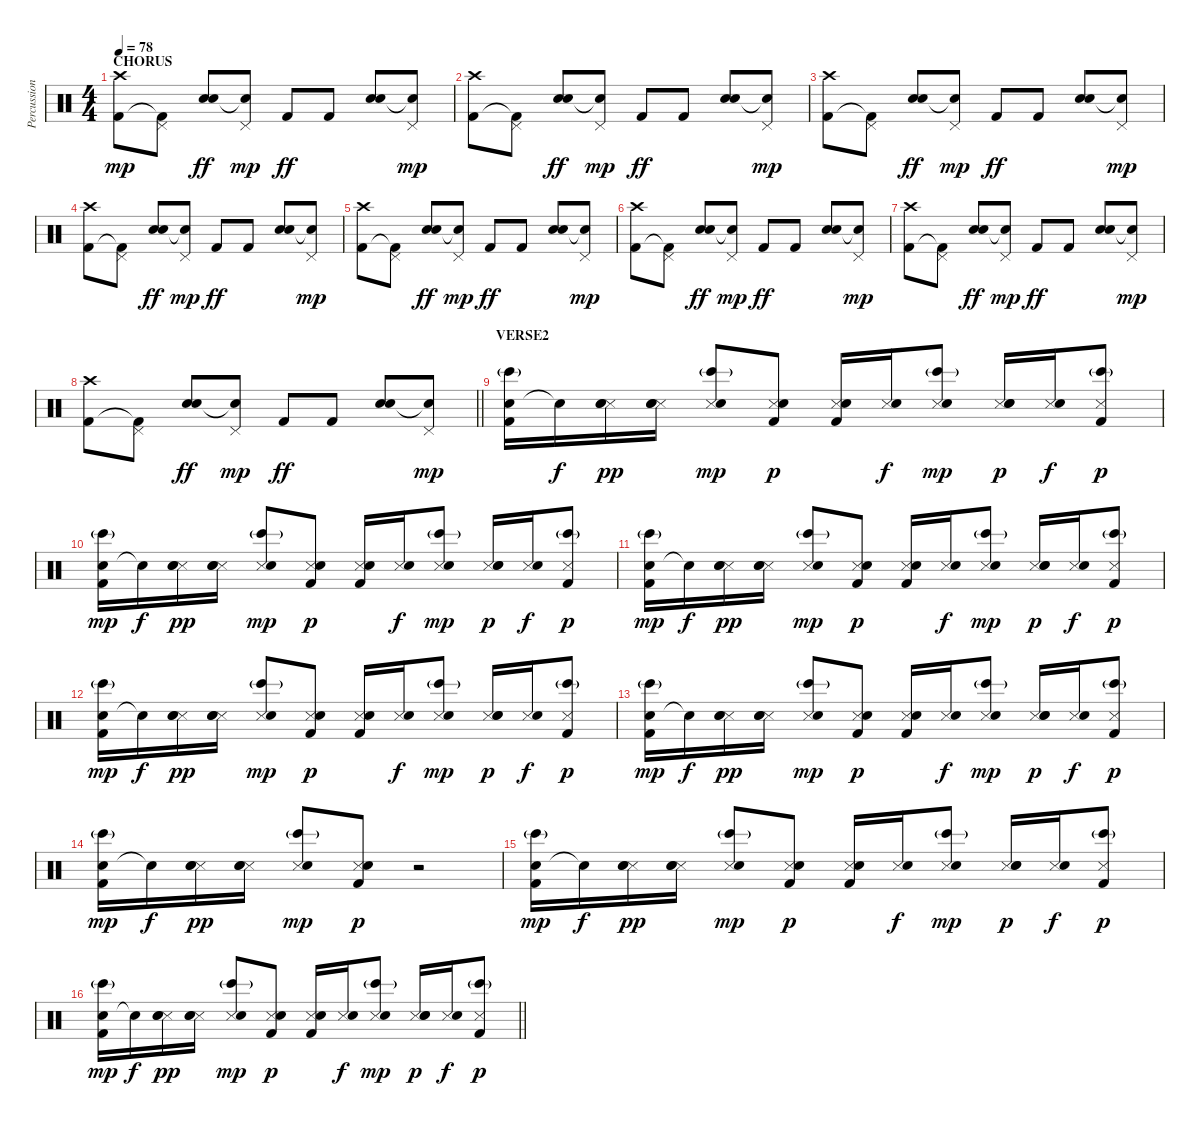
\track ("Percussion" "Percussion") {instrument percussion}
\staff {score}
\articulation defaults
\ts (4 4)
\section ("" "CHORUS")
\tempo 78
\clef neutral
\ks c
("Kick (hit) 2" "Crash high (hit)").8{dy mp} ("Kick (hit) 2"{t} "Pedal Hi-Hat (hit)").8 ("Snare (hit) 2" "Electric Snare (hit)").8{dy ff} ("Snare (hit)"{t} "Pedal Hi-Hat (hit)").8{dy mp} "Kick (hit) 2".8{dy ff} "Kick (hit) 2".8 ("Snare (hit) 2" "Electric Snare (hit)").8 ("Snare (hit)"{t} "Pedal Hi-Hat (hit)").8{dy mp} |
("Kick (hit) 2" "Crash high (hit)").8 ("Kick (hit) 2"{t} "Pedal Hi-Hat (hit)").8 ("Snare (hit) 2" "Electric Snare (hit)").8{dy ff} ("Snare (hit)"{t} "Pedal Hi-Hat (hit)").8{dy mp} "Kick (hit) 2".8{dy ff} "Kick (hit) 2".8 ("Snare (hit) 2" "Electric Snare (hit)").8 ("Snare (hit)"{t} "Pedal Hi-Hat (hit)").8{dy mp} |
("Kick (hit) 2" "Crash high (hit)").8 ("Kick (hit) 2"{t} "Pedal Hi-Hat (hit)").8 ("Snare (hit) 2" "Electric Snare (hit)").8{dy ff} ("Snare (hit)"{t} "Pedal Hi-Hat (hit)").8{dy mp} "Kick (hit) 2".8{dy ff} "Kick (hit) 2".8 ("Snare (hit) 2" "Electric Snare (hit)").8 ("Snare (hit)"{t} "Pedal Hi-Hat (hit)").8{dy mp} |
("Kick (hit) 2" "Crash high (hit)").8 ("Kick (hit) 2"{t} "Pedal Hi-Hat (hit)").8 ("Snare (hit) 2" "Electric Snare (hit)").8{dy ff} ("Snare (hit)"{t} "Pedal Hi-Hat (hit)").8{dy mp} "Kick (hit) 2".8{dy ff} "Kick (hit) 2".8 ("Snare (hit) 2" "Electric Snare (hit)").8 ("Snare (hit)"{t} "Pedal Hi-Hat (hit)").8{dy mp} |
("Kick (hit) 2" "Crash high (hit)").8 ("Kick (hit) 2"{t} "Pedal Hi-Hat (hit)").8 ("Snare (hit) 2" "Electric Snare (hit)").8{dy ff} ("Snare (hit)"{t} "Pedal Hi-Hat (hit)").8{dy mp} "Kick (hit) 2".8{dy ff} "Kick (hit) 2".8 ("Snare (hit) 2" "Electric Snare (hit)").8 ("Snare (hit)"{t} "Pedal Hi-Hat (hit)").8{dy mp} |
("Kick (hit) 2" "Crash high (hit)").8 ("Kick (hit) 2"{t} "Pedal Hi-Hat (hit)").8 ("Snare (hit) 2" "Electric Snare (hit)").8{dy ff} ("Snare (hit)"{t} "Pedal Hi-Hat (hit)").8{dy mp} "Kick (hit) 2".8{dy ff} "Kick (hit) 2".8 ("Snare (hit) 2" "Electric Snare (hit)").8 ("Snare (hit)"{t} "Pedal Hi-Hat (hit)").8{dy mp} |
("Kick (hit) 2" "Crash high (hit)").8 ("Kick (hit) 2"{t} "Pedal Hi-Hat (hit)").8 ("Snare (hit) 2" "Electric Snare (hit)").8{dy ff} ("Snare (hit)"{t} "Pedal Hi-Hat (hit)").8{dy mp} "Kick (hit) 2".8{dy ff} "Kick (hit) 2".8 ("Snare (hit) 2" "Electric Snare (hit)").8 ("Snare (hit)"{t} "Pedal Hi-Hat (hit)").8{dy mp} |
\barLineRight lightlight
("Kick (hit) 2" "Crash high (hit)").8 ("Kick (hit) 2"{t} "Pedal Hi-Hat (hit)").8 ("Snare (hit) 2" "Electric Snare (hit)").8{dy ff} ("Snare (hit)"{t} "Pedal Hi-Hat (hit)").8{dy mp} "Kick (hit) 2".8{dy ff} "Kick (hit) 2".8 ("Snare (hit) 2" "Electric Snare (hit)").8 ("Snare (hit)"{t} "Pedal Hi-Hat (hit)").8{dy mp} |
\section ("" "VERSE2")
("Hand Clap (hit)" "Bongo High (hit)"{g} "Kick (hit) 2").16 "Snare (hit)"{t}.16{dy f} ("Snare (side stick) 3" "Hand Clap (hit)" "Snare (hit) 2").16{dy pp} ("Snare (side stick) 3" "Hand Clap (hit)" "Snare (hit) 2").16 ("Snare (side stick) 3" "Snare (hit) 2" "Bongo High (hit)"{g}).8{dy mp} ("Snare (side stick) 3" "Hand Clap (hit)" "Kick (hit) 2").8{dy p} ("Snare (side stick) 3" "Hand Clap (hit)" "Kick (hit) 2").16 ("Snare (side stick) 3" "Hand Clap (hit)").16{dy f} ("Snare (side stick) 3" "Snare (hit) 2" "Bongo High (hit)"{g}).8{dy mp} ("Snare (side stick) 3" "Hand Clap (hit)" "Snare (hit) 2").16{dy p} ("Snare (side stick) 3" "Hand Clap (hit)").16{dy f} ("Snare (side stick) 3" "Bongo High (hit)"{g} "Kick (hit) 2").8{dy p} |
("Hand Clap (hit)" "Bongo High (hit)"{g} "Kick (hit) 2").16{dy mp} "Snare (hit)"{t}.16{dy f} ("Snare (side stick) 3" "Hand Clap (hit)" "Snare (hit) 2").16{dy pp} ("Snare (side stick) 3" "Hand Clap (hit)" "Snare (hit) 2").16 ("Snare (side stick) 3" "Snare (hit) 2" "Bongo High (hit)"{g}).8{dy mp} ("Snare (side stick) 3" "Hand Clap (hit)" "Kick (hit) 2").8{dy p} ("Snare (side stick) 3" "Hand Clap (hit)" "Kick (hit) 2").16 ("Snare (side stick) 3" "Hand Clap (hit)").16{dy f} ("Snare (side stick) 3" "Snare (hit) 2" "Bongo High (hit)"{g}).8{dy mp} ("Snare (side stick) 3" "Hand Clap (hit)" "Snare (hit) 2").16{dy p} ("Snare (side stick) 3" "Hand Clap (hit)").16{dy f} ("Snare (side stick) 3" "Bongo High (hit)"{g} "Kick (hit) 2").8{dy p} |
("Hand Clap (hit)" "Bongo High (hit)"{g} "Kick (hit) 2").16{dy mp} "Snare (hit)"{t}.16{dy f} ("Snare (side stick) 3" "Hand Clap (hit)" "Snare (hit) 2").16{dy pp} ("Snare (side stick) 3" "Hand Clap (hit)" "Snare (hit) 2").16 ("Snare (side stick) 3" "Snare (hit) 2" "Bongo High (hit)"{g}).8{dy mp} ("Snare (side stick) 3" "Hand Clap (hit)" "Kick (hit) 2").8{dy p} ("Snare (side stick) 3" "Hand Clap (hit)" "Kick (hit) 2").16 ("Snare (side stick) 3" "Hand Clap (hit)").16{dy f} ("Snare (side stick) 3" "Snare (hit) 2" "Bongo High (hit)"{g}).8{dy mp} ("Snare (side stick) 3" "Hand Clap (hit)" "Snare (hit) 2").16{dy p} ("Snare (side stick) 3" "Hand Clap (hit)").16{dy f} ("Snare (side stick) 3" "Bongo High (hit)"{g} "Kick (hit) 2").8{dy p} |
("Hand Clap (hit)" "Bongo High (hit)"{g} "Kick (hit) 2").16{dy mp} "Snare (hit)"{t}.16{dy f} ("Snare (side stick) 3" "Hand Clap (hit)" "Snare (hit) 2").16{dy pp} ("Snare (side stick) 3" "Hand Clap (hit)" "Snare (hit) 2").16 ("Snare (side stick) 3" "Snare (hit) 2" "Bongo High (hit)"{g}).8{dy mp} ("Snare (side stick) 3" "Hand Clap (hit)" "Kick (hit) 2").8{dy p} ("Snare (side stick) 3" "Hand Clap (hit)" "Kick (hit) 2").16 ("Snare (side stick) 3" "Hand Clap (hit)").16{dy f} ("Snare (side stick) 3" "Snare (hit) 2" "Bongo High (hit)"{g}).8{dy mp} ("Snare (side stick) 3" "Hand Clap (hit)" "Snare (hit) 2").16{dy p} ("Snare (side stick) 3" "Hand Clap (hit)").16{dy f} ("Snare (side stick) 3" "Bongo High (hit)"{g} "Kick (hit) 2").8{dy p} |
("Hand Clap (hit)" "Bongo High (hit)"{g} "Kick (hit) 2").16{dy mp} "Snare (hit)"{t}.16{dy f} ("Snare (side stick) 3" "Hand Clap (hit)" "Snare (hit) 2").16{dy pp} ("Snare (side stick) 3" "Hand Clap (hit)" "Snare (hit) 2").16 ("Snare (side stick) 3" "Snare (hit) 2" "Bongo High (hit)"{g}).8{dy mp} ("Snare (side stick) 3" "Hand Clap (hit)" "Kick (hit) 2").8{dy p} ("Snare (side stick) 3" "Hand Clap (hit)" "Kick (hit) 2").16 ("Snare (side stick) 3" "Hand Clap (hit)").16{dy f} ("Snare (side stick) 3" "Snare (hit) 2" "Bongo High (hit)"{g}).8{dy mp} ("Snare (side stick) 3" "Hand Clap (hit)" "Snare (hit) 2").16{dy p} ("Snare (side stick) 3" "Hand Clap (hit)").16{dy f} ("Snare (side stick) 3" "Bongo High (hit)"{g} "Kick (hit) 2").8{dy p} |
("Hand Clap (hit)" "Bongo High (hit)"{g} "Kick (hit) 2").16{dy mp} "Snare (hit)"{t}.16{dy f} ("Snare (side stick) 3" "Hand Clap (hit)" "Snare (hit) 2").16{dy pp} ("Snare (side stick) 3" "Hand Clap (hit)" "Snare (hit) 2").16 ("Snare (side stick) 3" "Snare (hit) 2" "Bongo High (hit)"{g}).8{dy mp} ("Snare (side stick) 3" "Hand Clap (hit)" "Kick (hit) 2").8{dy p} r.2 |
("Hand Clap (hit)" "Bongo High (hit)"{g} "Kick (hit) 2").16{dy mp} "Snare (hit)"{t}.16{dy f} ("Snare (side stick) 3" "Hand Clap (hit)" "Snare (hit) 2").16{dy pp} ("Snare (side stick) 3" "Hand Clap (hit)" "Snare (hit) 2").16 ("Snare (side stick) 3" "Snare (hit) 2" "Bongo High (hit)"{g}).8{dy mp} ("Snare (side stick) 3" "Hand Clap (hit)" "Kick (hit) 2").8{dy p} ("Snare (side stick) 3" "Hand Clap (hit)" "Kick (hit) 2").16 ("Snare (side stick) 3" "Hand Clap (hit)").16{dy f} ("Snare (side stick) 3" "Snare (hit) 2" "Bongo High (hit)"{g}).8{dy mp} ("Snare (side stick) 3" "Hand Clap (hit)" "Snare (hit) 2").16{dy p} ("Snare (side stick) 3" "Hand Clap (hit)").16{dy f} ("Snare (side stick) 3" "Bongo High (hit)"{g} "Kick (hit) 2").8{dy p} |
\barLineRight lightlight
("Hand Clap (hit)" "Bongo High (hit)"{g} "Kick (hit) 2").16{dy mp} "Snare (hit)"{t}.16{dy f} ("Snare (side stick) 3" "Hand Clap (hit)" "Snare (hit) 2").16{dy pp} ("Snare (side stick) 3" "Hand Clap (hit)" "Snare (hit) 2").16 ("Snare (side stick) 3" "Snare (hit) 2" "Bongo High (hit)"{g}).8{dy mp} ("Snare (side stick) 3" "Hand Clap (hit)" "Kick (hit) 2").8{dy p} ("Snare (side stick) 3" "Hand Clap (hit)" "Kick (hit) 2").16 ("Snare (side stick) 3" "Hand Clap (hit)").16{dy f} ("Snare (side stick) 3" "Snare (hit) 2" "Bongo High (hit)"{g}).8{dy mp} ("Snare (side stick) 3" "Hand Clap (hit)" "Snare (hit) 2").16{dy p} ("Snare (side stick) 3" "Hand Clap (hit)").16{dy f} ("Snare (side stick) 3" "Bongo High (hit)"{g} "Kick (hit) 2").8{dy p}
